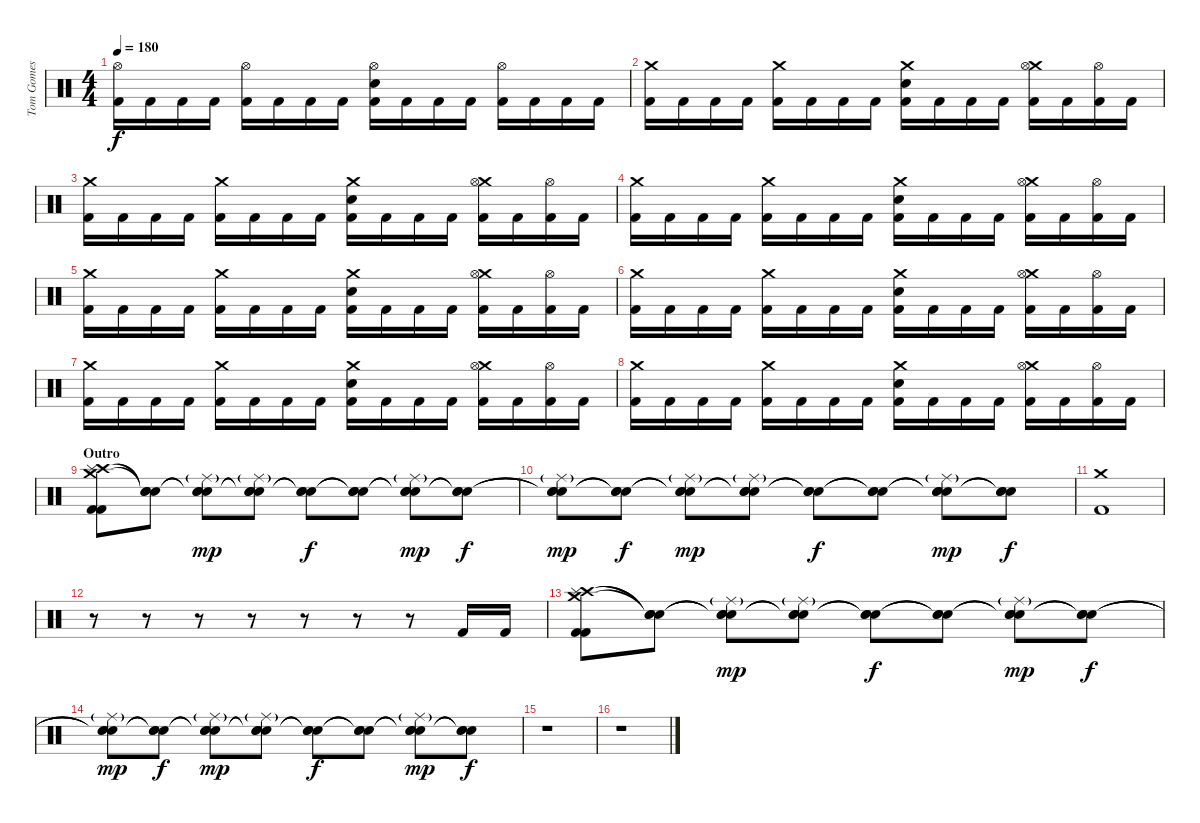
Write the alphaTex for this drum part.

\track ("Tom Gomes" "Tom Gomes") {instrument percussion}
\staff {score}
\articulation defaults
\ts (4 4)
\tempo 180
\clef neutral
\ks c
("Hi-Hat (open)" "Kick (hit) 2").16{dy f} "Kick (hit) 2".16 "Kick (hit) 2".16 "Kick (hit) 2".16 ("Hi-Hat (open)" "Kick (hit) 2").16 "Kick (hit) 2".16 "Kick (hit) 2".16 "Kick (hit) 2".16 ("Hi-Hat (open)" "Snare (hit) 2" "Kick (hit) 2").16 "Kick (hit) 2".16 "Kick (hit) 2".16 "Kick (hit) 2".16 ("Hi-Hat (open)" "Kick (hit) 2").16 "Kick (hit) 2".16 "Kick (hit) 2".16 "Kick (hit) 2".16 |
("Crash medium (hit)" "Kick (hit) 2").16 "Kick (hit) 2".16 "Kick (hit) 2".16 "Kick (hit) 2".16 ("Crash medium (hit)" "Kick (hit) 2").16 "Kick (hit) 2".16 "Kick (hit) 2".16 "Kick (hit) 2".16 ("Crash medium (hit)" "Snare (hit) 2" "Kick (hit) 2").16 "Kick (hit) 2".16 "Kick (hit) 2".16 "Kick (hit) 2".16 ("Crash medium (hit)" "Hi-Hat (open)" "Kick (hit) 2").16 "Kick (hit) 2".16 ("Hi-Hat (open)" "Kick (hit) 2").16 "Kick (hit) 2".16 |
("Crash medium (hit)" "Kick (hit) 2").16 "Kick (hit) 2".16 "Kick (hit) 2".16 "Kick (hit) 2".16 ("Crash medium (hit)" "Kick (hit) 2").16 "Kick (hit) 2".16 "Kick (hit) 2".16 "Kick (hit) 2".16 ("Crash medium (hit)" "Snare (hit) 2" "Kick (hit) 2").16 "Kick (hit) 2".16 "Kick (hit) 2".16 "Kick (hit) 2".16 ("Crash medium (hit)" "Hi-Hat (open)" "Kick (hit) 2").16 "Kick (hit) 2".16 ("Hi-Hat (open)" "Kick (hit) 2").16 "Kick (hit) 2".16 |
("Crash medium (hit)" "Kick (hit) 2").16 "Kick (hit) 2".16 "Kick (hit) 2".16 "Kick (hit) 2".16 ("Crash medium (hit)" "Kick (hit) 2").16 "Kick (hit) 2".16 "Kick (hit) 2".16 "Kick (hit) 2".16 ("Crash medium (hit)" "Snare (hit) 2" "Kick (hit) 2").16 "Kick (hit) 2".16 "Kick (hit) 2".16 "Kick (hit) 2".16 ("Crash medium (hit)" "Hi-Hat (open)" "Kick (hit) 2").16 "Kick (hit) 2".16 ("Hi-Hat (open)" "Kick (hit) 2").16 "Kick (hit) 2".16 |
("Crash medium (hit)" "Kick (hit) 2").16 "Kick (hit) 2".16 "Kick (hit) 2".16 "Kick (hit) 2".16 ("Crash medium (hit)" "Kick (hit) 2").16 "Kick (hit) 2".16 "Kick (hit) 2".16 "Kick (hit) 2".16 ("Crash medium (hit)" "Snare (hit) 2" "Kick (hit) 2").16 "Kick (hit) 2".16 "Kick (hit) 2".16 "Kick (hit) 2".16 ("Crash medium (hit)" "Hi-Hat (open)" "Kick (hit) 2").16 "Kick (hit) 2".16 ("Hi-Hat (open)" "Kick (hit) 2").16 "Kick (hit) 2".16 |
("Crash medium (hit)" "Kick (hit) 2").16 "Kick (hit) 2".16 "Kick (hit) 2".16 "Kick (hit) 2".16 ("Crash medium (hit)" "Kick (hit) 2").16 "Kick (hit) 2".16 "Kick (hit) 2".16 "Kick (hit) 2".16 ("Crash medium (hit)" "Snare (hit) 2" "Kick (hit) 2").16 "Kick (hit) 2".16 "Kick (hit) 2".16 "Kick (hit) 2".16 ("Crash medium (hit)" "Hi-Hat (open)" "Kick (hit) 2").16 "Kick (hit) 2".16 ("Hi-Hat (open)" "Kick (hit) 2").16 "Kick (hit) 2".16 |
("Crash medium (hit)" "Kick (hit) 2").16 "Kick (hit) 2".16 "Kick (hit) 2".16 "Kick (hit) 2".16 ("Crash medium (hit)" "Kick (hit) 2").16 "Kick (hit) 2".16 "Kick (hit) 2".16 "Kick (hit) 2".16 ("Crash medium (hit)" "Snare (hit) 2" "Kick (hit) 2").16 "Kick (hit) 2".16 "Kick (hit) 2".16 "Kick (hit) 2".16 ("Crash medium (hit)" "Hi-Hat (open)" "Kick (hit) 2").16 "Kick (hit) 2".16 ("Hi-Hat (open)" "Kick (hit) 2").16 "Kick (hit) 2".16 |
("Crash medium (hit)" "Kick (hit) 2").16 "Kick (hit) 2".16 "Kick (hit) 2".16 "Kick (hit) 2".16 ("Crash medium (hit)" "Kick (hit) 2").16 "Kick (hit) 2".16 "Kick (hit) 2".16 "Kick (hit) 2".16 ("Crash medium (hit)" "Snare (hit) 2" "Kick (hit) 2").16 "Kick (hit) 2".16 "Kick (hit) 2".16 "Kick (hit) 2".16 ("Crash medium (hit)" "Hi-Hat (open)" "Kick (hit) 2").16 "Kick (hit) 2".16 ("Hi-Hat (open)" "Kick (hit) 2").16 "Kick (hit) 2".16 |
\section ("" "Outro")
("Crash high (hit)" "Splash (hit)" "Crash medium (hit)" "Kick (hit) 2" "Kick (hit) 2").8 ("Snare (hit)"{t} "Snare (hit)"{t} "Snare (hit)"{t}).8 ("Snare (hit)"{t} "Snare (hit)"{t} "Snare (hit)"{t} "Ride (middle)"{g}).8{dy mp} ("Snare (hit)"{t} "Snare (hit)"{t} "Snare (hit)"{t} "Ride (middle)"{g}).8 ("Snare (hit)"{t} "Snare (hit)"{t} "Snare (hit)"{t}).8{dy f} ("Snare (hit)"{t} "Snare (hit)"{t} "Snare (hit)"{t}).8 ("Snare (hit)"{t} "Snare (hit)"{t} "Snare (hit)"{t} "Ride (middle)"{g}).8{dy mp} ("Snare (hit)"{t} "Snare (hit)"{t} "Snare (hit)"{t}).8{dy f} |
("Snare (hit)"{t} "Snare (hit)"{t} "Snare (hit)"{t} "Ride (middle)"{g}).8{dy mp} ("Snare (hit)"{t} "Snare (hit)"{t} "Snare (hit)"{t}).8{dy f} ("Snare (hit)"{t} "Snare (hit)"{t} "Snare (hit)"{t} "Ride (middle)"{g}).8{dy mp} ("Snare (hit)"{t} "Snare (hit)"{t} "Snare (hit)"{t} "Ride (middle)"{g}).8 ("Snare (hit)"{t} "Snare (hit)"{t} "Snare (hit)"{t}).8{dy f} ("Snare (hit)"{t} "Snare (hit)"{t} "Snare (hit)"{t}).8 ("Snare (hit)"{t} "Snare (hit)"{t} "Snare (hit)"{t} "Ride (middle)"{g}).8{dy mp} ("Snare (hit)"{t} "Snare (hit)"{t} "Snare (hit)"{t}).8{dy f} |
("Crash medium (hit)" "Kick (hit) 2").1 |
r.8 r.8 r.8 r.8 r.8 r.8 r.8 "Kick (hit) 2".16 "Kick (hit) 2".16 |
("Crash high (hit)" "Splash (hit)" "Crash medium (hit)" "Kick (hit) 2" "Kick (hit) 2").8 ("Snare (hit)"{t} "Snare (hit)"{t} "Snare (hit)"{t}).8 ("Snare (hit)"{t} "Snare (hit)"{t} "Snare (hit)"{t} "Ride (middle)"{g}).8{dy mp} ("Snare (hit)"{t} "Snare (hit)"{t} "Snare (hit)"{t} "Ride (middle)"{g}).8 ("Snare (hit)"{t} "Snare (hit)"{t} "Snare (hit)"{t}).8{dy f} ("Snare (hit)"{t} "Snare (hit)"{t} "Snare (hit)"{t}).8 ("Snare (hit)"{t} "Snare (hit)"{t} "Snare (hit)"{t} "Ride (middle)"{g}).8{dy mp} ("Snare (hit)"{t} "Snare (hit)"{t} "Snare (hit)"{t}).8{dy f} |
("Snare (hit)"{t} "Snare (hit)"{t} "Snare (hit)"{t} "Ride (middle)"{g}).8{dy mp} ("Snare (hit)"{t} "Snare (hit)"{t} "Snare (hit)"{t}).8{dy f} ("Snare (hit)"{t} "Snare (hit)"{t} "Snare (hit)"{t} "Ride (middle)"{g}).8{dy mp} ("Snare (hit)"{t} "Snare (hit)"{t} "Snare (hit)"{t} "Ride (middle)"{g}).8 ("Snare (hit)"{t} "Snare (hit)"{t} "Snare (hit)"{t}).8{dy f} ("Snare (hit)"{t} "Snare (hit)"{t} "Snare (hit)"{t}).8 ("Snare (hit)"{t} "Snare (hit)"{t} "Snare (hit)"{t} "Ride (middle)"{g}).8{dy mp} ("Snare (hit)"{t} "Snare (hit)"{t} "Snare (hit)"{t}).8{dy f} |
r.1 |
r.1
